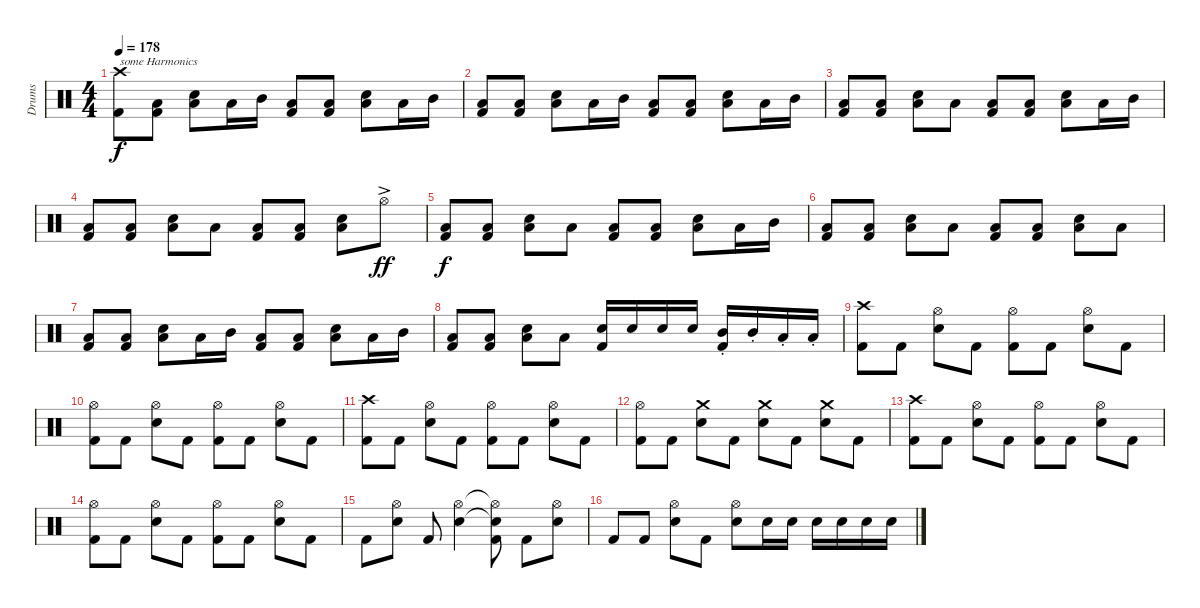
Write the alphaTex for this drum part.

\track ("Drums" "Drums") {instrument percussion}
\staff {score}
\articulation defaults
\ts (4 4)
\tempo 178
\clef neutral
\ks c
("Crash high (hit)" "Kick (hit) 2").8{txt "some Harmonics" dy f} ("Low Floor Tom (hit)" "Kick (hit) 2").8 ("Electric Snare (hit)" "Low Floor Tom (hit)").8 "Low Floor Tom (hit)".16 "Mid Tom (hit)".16 ("Low Floor Tom (hit)" "Kick (hit) 2").8 ("Low Floor Tom (hit)" "Kick (hit) 2").8 ("Electric Snare (hit)" "Low Floor Tom (hit)").8 "Low Floor Tom (hit)".16 "Mid Tom (hit)".16 |
("Low Floor Tom (hit)" "Kick (hit) 2").8 ("Low Floor Tom (hit)" "Kick (hit) 2").8 ("Electric Snare (hit)" "Low Floor Tom (hit)").8 "Low Floor Tom (hit)".16 "Mid Tom (hit)".16 ("Low Floor Tom (hit)" "Kick (hit) 2").8 ("Low Floor Tom (hit)" "Kick (hit) 2").8 ("Electric Snare (hit)" "Low Floor Tom (hit)").8 "Low Floor Tom (hit)".16 "Mid Tom (hit)".16 |
("Low Floor Tom (hit)" "Kick (hit) 2").8 ("Low Floor Tom (hit)" "Kick (hit) 2").8 ("Electric Snare (hit)" "Low Floor Tom (hit)").8 "Low Floor Tom (hit)".8 ("Low Floor Tom (hit)" "Kick (hit) 2").8 ("Low Floor Tom (hit)" "Kick (hit) 2").8 ("Electric Snare (hit)" "Low Floor Tom (hit)").8 "Low Floor Tom (hit)".16 "Mid Tom (hit)".16 |
("Low Floor Tom (hit)" "Kick (hit) 2").8 ("Low Floor Tom (hit)" "Kick (hit) 2").8 ("Electric Snare (hit)" "Low Floor Tom (hit)").8 "Low Floor Tom (hit)".8 ("Low Floor Tom (hit)" "Kick (hit) 2").8 ("Low Floor Tom (hit)" "Kick (hit) 2").8 ("Electric Snare (hit)" "Low Floor Tom (hit)").8 "Hi-Hat (open)"{ac}.8{dy ff} |
("Low Floor Tom (hit)" "Kick (hit) 2").8{dy f} ("Low Floor Tom (hit)" "Kick (hit) 2").8 ("Electric Snare (hit)" "Low Floor Tom (hit)").8 "Low Floor Tom (hit)".8 ("Low Floor Tom (hit)" "Kick (hit) 2").8 ("Low Floor Tom (hit)" "Kick (hit) 2").8 ("Electric Snare (hit)" "Low Floor Tom (hit)").8 "Low Floor Tom (hit)".16 "Mid Tom (hit)".16 |
("Low Floor Tom (hit)" "Kick (hit) 2").8 ("Low Floor Tom (hit)" "Kick (hit) 2").8 ("Electric Snare (hit)" "Low Floor Tom (hit)").8 "Low Floor Tom (hit)".8 ("Low Floor Tom (hit)" "Kick (hit) 2").8 ("Low Floor Tom (hit)" "Kick (hit) 2").8 ("Electric Snare (hit)" "Low Floor Tom (hit)").8 "Low Floor Tom (hit)".8 |
("Low Floor Tom (hit)" "Kick (hit) 2").8 ("Low Floor Tom (hit)" "Kick (hit) 2").8 ("Electric Snare (hit)" "Low Floor Tom (hit)").8 "Low Floor Tom (hit)".16 "Mid Tom (hit)".16 ("Low Floor Tom (hit)" "Kick (hit) 2").8 ("Low Floor Tom (hit)" "Kick (hit) 2").8 ("Electric Snare (hit)" "Low Floor Tom (hit)").8 "Low Floor Tom (hit)".16 "Mid Tom (hit)".16 |
("Low Floor Tom (hit)" "Kick (hit) 2").8 ("Low Floor Tom (hit)" "Kick (hit) 2").8 ("Electric Snare (hit)" "Low Floor Tom (hit)").8 "Low Floor Tom (hit)".8 ("Electric Snare (hit)" "Kick (hit) 2").16 "Electric Snare (hit)".16 "Electric Snare (hit)".16 "Electric Snare (hit)".16 ("Mid Tom (hit)"{st} "Kick (hit) 2"{st}).16 "Mid Tom (hit)"{st}.16 "Low Tom (hit)"{st}.16 "Low Tom (hit)"{st}.16 |
("Crash high (hit)" "Kick (hit) 2").8 "Kick (hit) 2".8 ("Hi-Hat (open)" "Electric Snare (hit)").8 "Kick (hit) 2".8 ("Hi-Hat (open)" "Kick (hit) 2").8 "Kick (hit) 2".8 ("Hi-Hat (open)" "Electric Snare (hit)").8 "Kick (hit) 2".8 |
("Hi-Hat (open)" "Kick (hit) 2").8 "Kick (hit) 2".8 ("Hi-Hat (open)" "Electric Snare (hit)").8 "Kick (hit) 2".8 ("Hi-Hat (open)" "Kick (hit) 2").8 "Kick (hit) 2".8 ("Hi-Hat (open)" "Electric Snare (hit)").8 "Kick (hit) 2".8 |
("Crash high (hit)" "Kick (hit) 2").8 "Kick (hit) 2".8 ("Hi-Hat (open)" "Electric Snare (hit)").8 "Kick (hit) 2".8 ("Hi-Hat (open)" "Kick (hit) 2").8 "Kick (hit) 2".8 ("Hi-Hat (open)" "Electric Snare (hit)").8 "Kick (hit) 2".8 |
("Hi-Hat (open)" "Kick (hit) 2").8 "Kick (hit) 2".8 ("Crash medium (hit)" "Electric Snare (hit)").8 "Kick (hit) 2".8 ("Crash medium (hit)" "Electric Snare (hit)").8 "Kick (hit) 2".8 ("Crash medium (hit)" "Electric Snare (hit)").8 "Kick (hit) 2".8 |
("Crash high (hit)" "Kick (hit) 2").8 "Kick (hit) 2".8 ("Hi-Hat (open)" "Electric Snare (hit)").8 "Kick (hit) 2".8 ("Hi-Hat (open)" "Kick (hit) 2").8 "Kick (hit) 2".8 ("Hi-Hat (open)" "Electric Snare (hit)").8 "Kick (hit) 2".8 |
("Hi-Hat (open)" "Kick (hit) 2").8 "Kick (hit) 2".8 ("Hi-Hat (open)" "Electric Snare (hit)").8 "Kick (hit) 2".8 ("Hi-Hat (open)" "Kick (hit) 2").8 "Kick (hit) 2".8 ("Hi-Hat (open)" "Electric Snare (hit)").8 "Kick (hit) 2".8 |
"Kick (hit) 2".8 ("Hi-Hat (open)" "Electric Snare (hit)").8 "Kick (hit) 2".8 ("Hi-Hat (open)" "Electric Snare (hit)").4 ("Hi-Hat (open)"{t} "Electric Snare (hit)"{t} "Kick (hit) 2").8 "Kick (hit) 2".8 ("Hi-Hat (open)" "Electric Snare (hit)").8 |
"Kick (hit) 2".8 "Kick (hit) 2".8 ("Hi-Hat (open)" "Electric Snare (hit)").8 "Kick (hit) 2".8 ("Hi-Hat (open)" "Electric Snare (hit)").8 "Electric Snare (hit)".16 "Electric Snare (hit)".16 "Electric Snare (hit)".16 "Electric Snare (hit)".16 "Electric Snare (hit)".16 "Electric Snare (hit)".16
